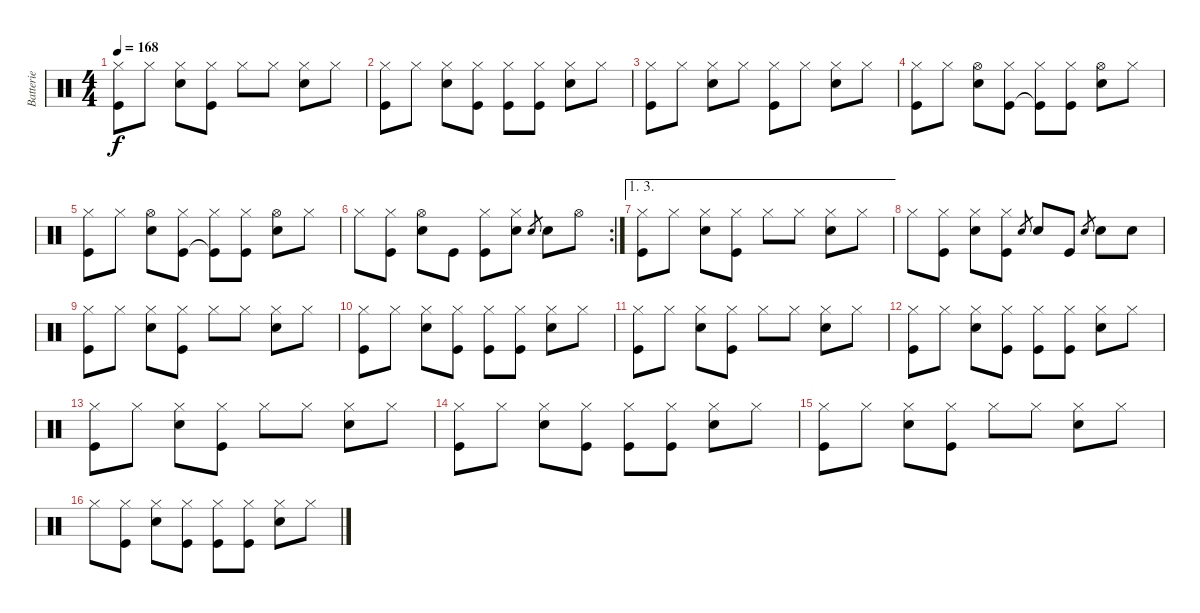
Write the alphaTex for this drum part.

\track ("Batterie" "Batterie") {instrument percussion}
\staff {score}
\articulation defaults
\ts (4 4)
\tempo 168
\clef neutral
\ks c
("Hi-Hat (closed)" "Kick (hit)").8{dy f} "Hi-Hat (closed)".8 ("Hi-Hat (closed)" "Snare (hit) 2").8 ("Hi-Hat (closed)" "Kick (hit)").8 "Hi-Hat (closed)".8 "Hi-Hat (closed)".8 ("Hi-Hat (closed)" "Snare (hit) 2").8 "Hi-Hat (closed)".8 |
("Hi-Hat (closed)" "Kick (hit)").8 "Hi-Hat (closed)".8 ("Hi-Hat (closed)" "Snare (hit) 2").8 ("Hi-Hat (closed)" "Kick (hit)").8 ("Hi-Hat (closed)" "Kick (hit)").8 ("Hi-Hat (closed)" "Kick (hit)").8 ("Hi-Hat (closed)" "Snare (hit) 2").8 "Hi-Hat (closed)".8 |
("Hi-Hat (closed)" "Kick (hit)").8 "Hi-Hat (closed)".8 ("Hi-Hat (closed)" "Snare (hit) 2").8 "Hi-Hat (closed)".8 ("Hi-Hat (closed)" "Kick (hit)").8 "Hi-Hat (closed)".8 ("Hi-Hat (closed)" "Snare (hit) 2").8 "Hi-Hat (closed)".8 |
("Hi-Hat (closed)" "Kick (hit)").8 "Hi-Hat (closed)".8 ("Hi-Hat (open)" "Snare (hit) 2").8 ("Hi-Hat (closed)" "Kick (hit)").8 ("Hi-Hat (closed)" "Kick (hit)"{t}).8 ("Hi-Hat (closed)" "Kick (hit)").8 ("Hi-Hat (open)" "Snare (hit) 2").8 "Hi-Hat (closed)".8 |
("Hi-Hat (closed)" "Kick (hit)").8 "Hi-Hat (closed)".8 ("Hi-Hat (open)" "Snare (hit) 2").8 ("Hi-Hat (closed)" "Kick (hit)").8 ("Hi-Hat (closed)" "Kick (hit)"{t}).8 ("Hi-Hat (closed)" "Kick (hit)").8 ("Hi-Hat (open)" "Snare (hit) 2").8 "Hi-Hat (closed)".8 |
\rc 2 "Hi-Hat (closed)".8
("Hi-Hat (closed)" "Kick (hit)").8 ("Hi-Hat (open)" "Snare (hit) 2").8 "Kick (hit)".8 ("Hi-Hat (closed)" "Kick (hit)").8 ("Hi-Hat (closed)" "Snare (hit) 2").8 "Snare (hit) 2".8{gr} "Snare (hit) 2".8 "Hi-Hat (open)".8 |
\ae (1 3)
("Hi-Hat (closed)" "Kick (hit)").8 "Hi-Hat (closed)".8 ("Hi-Hat (closed)" "Snare (hit) 2").8 ("Hi-Hat (closed)" "Kick (hit)").8 "Hi-Hat (closed)".8 "Hi-Hat (closed)".8 ("Hi-Hat (closed)" "Snare (hit) 2").8 "Hi-Hat (closed)".8 |
"Hi-Hat (closed)".8 ("Hi-Hat (closed)" "Kick (hit)").8 ("Hi-Hat (closed)" "Snare (hit) 2").8 ("Hi-Hat (closed)" "Kick (hit)").8 "Snare (hit) 2".8{gr} "Snare (hit) 2".8 "Kick (hit)".8 "Snare (hit) 2".8{gr} "Snare (hit) 2".8 "Snare (hit) 2".8 |
("Hi-Hat (closed)" "Kick (hit)").8 "Hi-Hat (closed)".8 ("Hi-Hat (closed)" "Snare (hit) 2").8 ("Hi-Hat (closed)" "Kick (hit)").8 "Hi-Hat (closed)".8 "Hi-Hat (closed)".8 ("Hi-Hat (closed)" "Snare (hit) 2").8 "Hi-Hat (closed)".8 |
("Hi-Hat (closed)" "Kick (hit)").8 "Hi-Hat (closed)".8 ("Hi-Hat (closed)" "Snare (hit) 2").8 ("Hi-Hat (closed)" "Kick (hit)").8 ("Hi-Hat (closed)" "Kick (hit)").8 ("Hi-Hat (closed)" "Kick (hit)").8 ("Hi-Hat (closed)" "Snare (hit) 2").8 "Hi-Hat (closed)".8 |
("Hi-Hat (closed)" "Kick (hit)").8 "Hi-Hat (closed)".8 ("Hi-Hat (closed)" "Snare (hit) 2").8 ("Hi-Hat (closed)" "Kick (hit)").8 "Hi-Hat (closed)".8 "Hi-Hat (closed)".8 ("Hi-Hat (closed)" "Snare (hit) 2").8 "Hi-Hat (closed)".8 |
("Hi-Hat (closed)" "Kick (hit)").8 "Hi-Hat (closed)".8 ("Hi-Hat (closed)" "Snare (hit) 2").8 ("Hi-Hat (closed)" "Kick (hit)").8 ("Hi-Hat (closed)" "Kick (hit)").8 ("Hi-Hat (closed)" "Kick (hit)").8 ("Hi-Hat (closed)" "Snare (hit) 2").8 "Hi-Hat (closed)".8 |
("Hi-Hat (closed)" "Kick (hit)").8 "Hi-Hat (closed)".8 ("Hi-Hat (closed)" "Snare (hit) 2").8 ("Hi-Hat (closed)" "Kick (hit)").8 "Hi-Hat (closed)".8 "Hi-Hat (closed)".8 ("Hi-Hat (closed)" "Snare (hit) 2").8 "Hi-Hat (closed)".8 |
("Hi-Hat (closed)" "Kick (hit)").8 "Hi-Hat (closed)".8 ("Hi-Hat (closed)" "Snare (hit) 2").8 ("Hi-Hat (closed)" "Kick (hit)").8 ("Hi-Hat (closed)" "Kick (hit)").8 ("Hi-Hat (closed)" "Kick (hit)").8 ("Hi-Hat (closed)" "Snare (hit) 2").8 "Hi-Hat (closed)".8 |
("Hi-Hat (closed)" "Kick (hit)").8 "Hi-Hat (closed)".8 ("Hi-Hat (closed)" "Snare (hit) 2").8 ("Hi-Hat (closed)" "Kick (hit)").8 "Hi-Hat (closed)".8 "Hi-Hat (closed)".8 ("Hi-Hat (closed)" "Snare (hit) 2").8 "Hi-Hat (closed)".8 |
"Hi-Hat (closed)".8 ("Hi-Hat (closed)" "Kick (hit)").8 ("Hi-Hat (closed)" "Snare (hit) 2").8 ("Hi-Hat (closed)" "Kick (hit)").8 ("Hi-Hat (closed)" "Kick (hit)").8 ("Hi-Hat (closed)" "Kick (hit)").8 ("Hi-Hat (closed)" "Snare (hit) 2").8 "Hi-Hat (closed)".8
